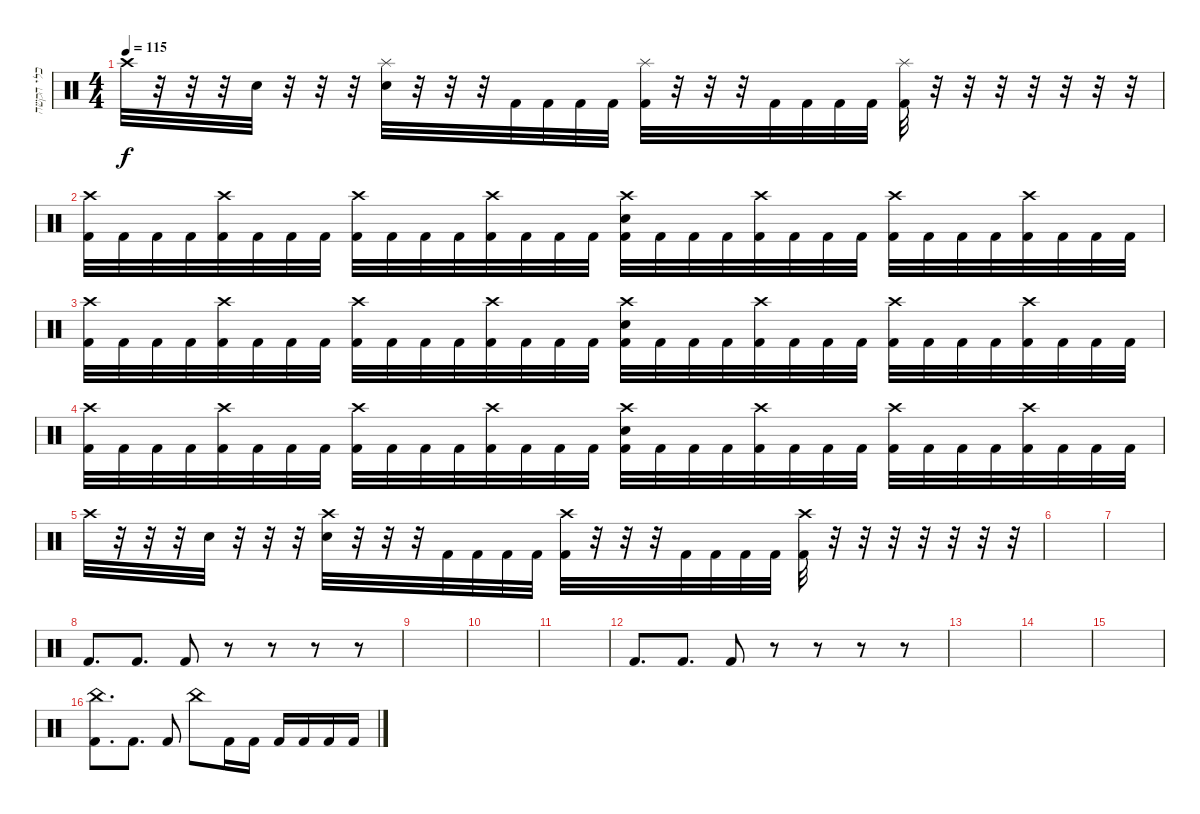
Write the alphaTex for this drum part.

\track ("כלי הקשה" "כלי הקשה") {instrument percussion}
\staff {score}
\articulation defaults
\ts (4 4)
\tempo 115
\clef neutral
\ks c "Crash high (hit)".32{dy f}
r.32 r.32 r.32 "Snare (hit) 2".32 r.32 r.32 r.32 ("Splash (hit)" "Snare (hit) 2").32 r.32 r.32 r.32 "Kick (hit) 2".32 "Kick (hit) 2".32 "Kick (hit) 2".32 "Kick (hit) 2".32 ("Splash (hit)" "Kick (hit) 2").32 r.32 r.32 r.32 "Kick (hit) 2".32 "Kick (hit) 2".32 "Kick (hit) 2".32 "Kick (hit) 2".32 ("Splash (hit)" "Kick (hit) 2").32 r.32 r.32 r.32 r.32 r.32 r.32 r.32 |
("Crash high (hit)" "Kick (hit) 2").32 "Kick (hit) 2".32 "Kick (hit) 2".32 "Kick (hit) 2".32 ("Crash high (hit)" "Kick (hit) 2").32 "Kick (hit) 2".32 "Kick (hit) 2".32 "Kick (hit) 2".32 ("Crash high (hit)" "Kick (hit) 2").32 "Kick (hit) 2".32 "Kick (hit) 2".32 "Kick (hit) 2".32 ("Crash high (hit)" "Kick (hit) 2").32 "Kick (hit) 2".32 "Kick (hit) 2".32 "Kick (hit) 2".32 ("Crash high (hit)" "Snare (hit) 2" "Kick (hit) 2").32 "Kick (hit) 2".32 "Kick (hit) 2".32 "Kick (hit) 2".32 ("Crash high (hit)" "Kick (hit) 2").32 "Kick (hit) 2".32 "Kick (hit) 2".32 "Kick (hit) 2".32 ("Crash high (hit)" "Kick (hit) 2").32 "Kick (hit) 2".32 "Kick (hit) 2".32 "Kick (hit) 2".32 ("Crash high (hit)" "Kick (hit) 2").32 "Kick (hit) 2".32 "Kick (hit) 2".32 "Kick (hit) 2".32 |
("Crash high (hit)" "Kick (hit) 2").32 "Kick (hit) 2".32 "Kick (hit) 2".32 "Kick (hit) 2".32 ("Crash high (hit)" "Kick (hit) 2").32 "Kick (hit) 2".32 "Kick (hit) 2".32 "Kick (hit) 2".32 ("Crash high (hit)" "Kick (hit) 2").32 "Kick (hit) 2".32 "Kick (hit) 2".32 "Kick (hit) 2".32 ("Crash high (hit)" "Kick (hit) 2").32 "Kick (hit) 2".32 "Kick (hit) 2".32 "Kick (hit) 2".32 ("Crash high (hit)" "Snare (hit) 2" "Kick (hit) 2").32 "Kick (hit) 2".32 "Kick (hit) 2".32 "Kick (hit) 2".32 ("Crash high (hit)" "Kick (hit) 2").32 "Kick (hit) 2".32 "Kick (hit) 2".32 "Kick (hit) 2".32 ("Crash high (hit)" "Kick (hit) 2").32 "Kick (hit) 2".32 "Kick (hit) 2".32 "Kick (hit) 2".32 ("Crash high (hit)" "Kick (hit) 2").32 "Kick (hit) 2".32 "Kick (hit) 2".32 "Kick (hit) 2".32 |
("Crash high (hit)" "Kick (hit) 2").32 "Kick (hit) 2".32 "Kick (hit) 2".32 "Kick (hit) 2".32 ("Crash high (hit)" "Kick (hit) 2").32 "Kick (hit) 2".32 "Kick (hit) 2".32 "Kick (hit) 2".32 ("Crash high (hit)" "Kick (hit) 2").32 "Kick (hit) 2".32 "Kick (hit) 2".32 "Kick (hit) 2".32 ("Crash high (hit)" "Kick (hit) 2").32 "Kick (hit) 2".32 "Kick (hit) 2".32 "Kick (hit) 2".32 ("Crash high (hit)" "Snare (hit) 2" "Kick (hit) 2").32 "Kick (hit) 2".32 "Kick (hit) 2".32 "Kick (hit) 2".32 ("Crash high (hit)" "Kick (hit) 2").32 "Kick (hit) 2".32 "Kick (hit) 2".32 "Kick (hit) 2".32 ("Crash high (hit)" "Kick (hit) 2").32 "Kick (hit) 2".32 "Kick (hit) 2".32 "Kick (hit) 2".32 ("Crash high (hit)" "Kick (hit) 2").32 "Kick (hit) 2".32 "Kick (hit) 2".32 "Kick (hit) 2".32 |
"Crash high (hit)".32 r.32 r.32 r.32 "Snare (hit) 2".32 r.32 r.32 r.32 ("Crash high (hit)" "Snare (hit) 2").32 r.32 r.32 r.32 "Kick (hit) 2".32 "Kick (hit) 2".32 "Kick (hit) 2".32 "Kick (hit) 2".32 ("Crash high (hit)" "Kick (hit) 2").32 r.32 r.32 r.32 "Kick (hit) 2".32 "Kick (hit) 2".32 "Kick (hit) 2".32 "Kick (hit) 2".32 ("Crash high (hit)" "Kick (hit) 2").32 r.32 r.32 r.32 r.32 r.32 r.32 r.32 |
|
|
"Kick (hit) 2".8{d} "Kick (hit) 2".8{d} "Kick (hit) 2".8 r.8 r.8 r.8 r.8 |
|
|
|
"Kick (hit) 2".8{d} "Kick (hit) 2".8{d} "Kick (hit) 2".8 r.8 r.8 r.8 r.8 |
|
|
|
("China (hit)" "Kick (hit) 2").8{d} "Kick (hit) 2".8{d} "Kick (hit) 2".8 "China (hit)".8 "Kick (hit) 2".16 "Kick (hit) 2".16 "Kick (hit) 2".16 "Kick (hit) 2".16 "Kick (hit) 2".16 "Kick (hit) 2".16
